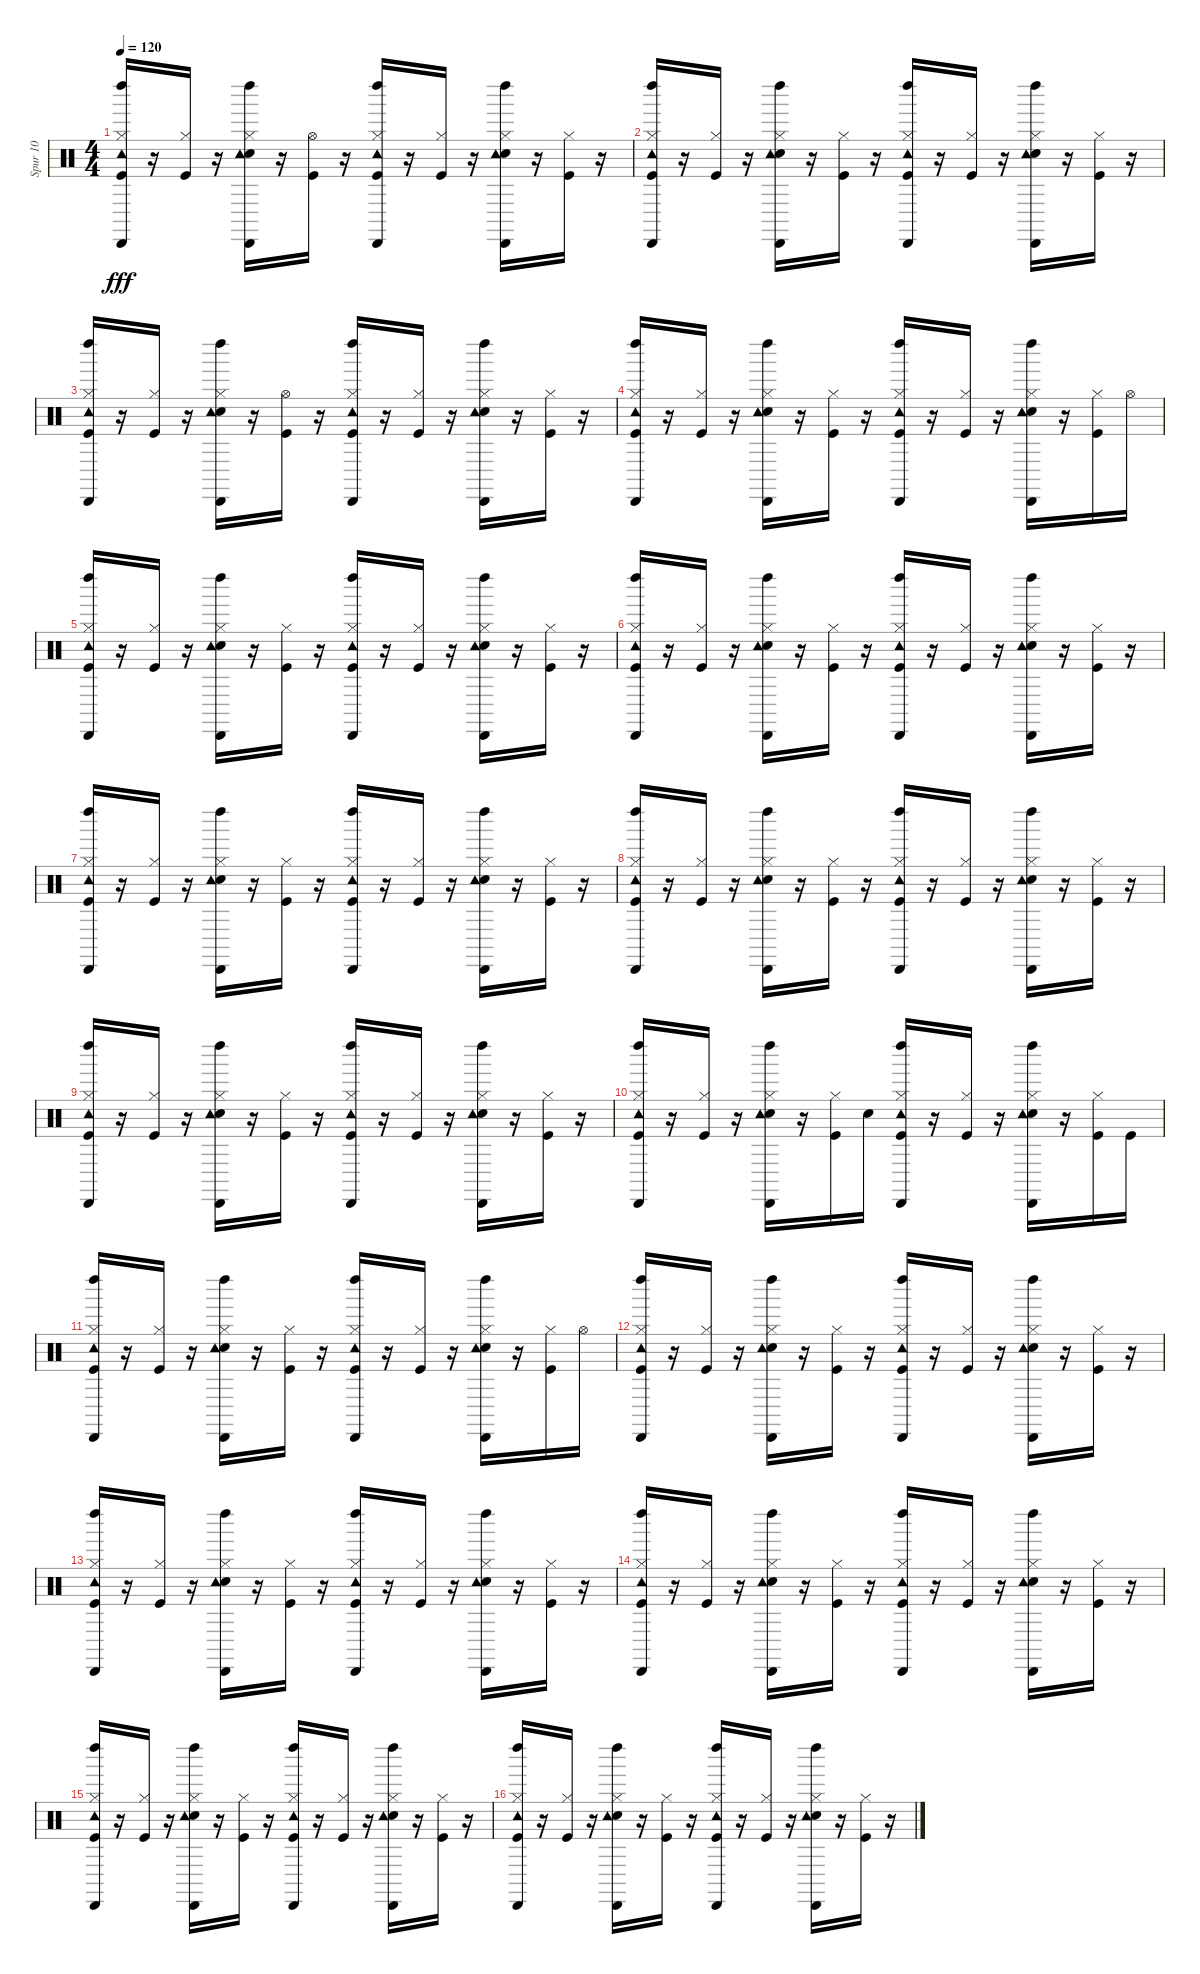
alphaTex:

\track ("Spur 10" "Spur 10") {instrument percussion}
\staff {score}
\articulation defaults
\ts (4 4)
\tempo 120
\clef neutral
\ks c
("Kick (hit)" "Hi-Hat (closed)" "Tambourine (hit)" "Left Maraca (hit)" "Cabasa (hit)").16{dy fff} r.16 ("Kick (hit)" "Hi-Hat (closed)").16 r.16 ("Snare (hit) 2" "Hi-Hat (closed)" "Tambourine (hit)" "Left Maraca (hit)" "Cabasa (hit)").16 r.16 ("Kick (hit)" "Hi-Hat (open)").16 r.16 ("Kick (hit)" "Hi-Hat (closed)" "Tambourine (hit)" "Left Maraca (hit)" "Cabasa (hit)").16 r.16 ("Kick (hit)" "Hi-Hat (closed)").16 r.16 ("Snare (hit) 2" "Hi-Hat (closed)" "Tambourine (hit)" "Left Maraca (hit)" "Cabasa (hit)").16 r.16 ("Kick (hit)" "Hi-Hat (closed)").16 r.16 |
("Kick (hit)" "Hi-Hat (closed)" "Tambourine (hit)" "Left Maraca (hit)" "Cabasa (hit)").16 r.16 ("Kick (hit)" "Hi-Hat (closed)").16 r.16 ("Snare (hit) 2" "Hi-Hat (closed)" "Tambourine (hit)" "Left Maraca (hit)" "Cabasa (hit)").16 r.16 ("Kick (hit)" "Hi-Hat (closed)").16 r.16 ("Kick (hit)" "Hi-Hat (closed)" "Tambourine (hit)" "Left Maraca (hit)" "Cabasa (hit)").16 r.16 ("Kick (hit)" "Hi-Hat (closed)").16 r.16 ("Snare (hit) 2" "Hi-Hat (closed)" "Tambourine (hit)" "Left Maraca (hit)" "Cabasa (hit)").16 r.16 ("Kick (hit)" "Hi-Hat (closed)").16 r.16 |
("Kick (hit)" "Hi-Hat (closed)" "Tambourine (hit)" "Left Maraca (hit)" "Cabasa (hit)").16 r.16 ("Kick (hit)" "Hi-Hat (closed)").16 r.16 ("Snare (hit) 2" "Hi-Hat (closed)" "Tambourine (hit)" "Left Maraca (hit)" "Cabasa (hit)").16 r.16 ("Kick (hit)" "Hi-Hat (open)").16 r.16 ("Kick (hit)" "Hi-Hat (closed)" "Tambourine (hit)" "Left Maraca (hit)" "Cabasa (hit)").16 r.16 ("Kick (hit)" "Hi-Hat (closed)").16 r.16 ("Snare (hit) 2" "Hi-Hat (closed)" "Tambourine (hit)" "Left Maraca (hit)" "Cabasa (hit)").16 r.16 ("Kick (hit)" "Hi-Hat (closed)").16 r.16 |
("Kick (hit)" "Hi-Hat (closed)" "Tambourine (hit)" "Left Maraca (hit)" "Cabasa (hit)").16 r.16 ("Kick (hit)" "Hi-Hat (closed)").16 r.16 ("Snare (hit) 2" "Hi-Hat (closed)" "Tambourine (hit)" "Left Maraca (hit)" "Cabasa (hit)").16 r.16 ("Kick (hit)" "Hi-Hat (closed)").16 r.16 ("Kick (hit)" "Hi-Hat (closed)" "Tambourine (hit)" "Left Maraca (hit)" "Cabasa (hit)").16 r.16 ("Kick (hit)" "Hi-Hat (closed)").16 r.16 ("Snare (hit) 2" "Hi-Hat (closed)" "Tambourine (hit)" "Left Maraca (hit)" "Cabasa (hit)").16 r.16 ("Kick (hit)" "Hi-Hat (closed)").16 "Hi-Hat (open)".16 |
("Kick (hit)" "Hi-Hat (closed)" "Tambourine (hit)" "Left Maraca (hit)" "Cabasa (hit)").16 r.16 ("Kick (hit)" "Hi-Hat (closed)").16 r.16 ("Snare (hit) 2" "Hi-Hat (closed)" "Tambourine (hit)" "Left Maraca (hit)" "Cabasa (hit)").16 r.16 ("Kick (hit)" "Hi-Hat (closed)").16 r.16 ("Kick (hit)" "Hi-Hat (closed)" "Tambourine (hit)" "Left Maraca (hit)" "Cabasa (hit)").16 r.16 ("Kick (hit)" "Hi-Hat (closed)").16 r.16 ("Snare (hit) 2" "Hi-Hat (closed)" "Tambourine (hit)" "Left Maraca (hit)" "Cabasa (hit)").16 r.16 ("Kick (hit)" "Hi-Hat (closed)").16 r.16 |
("Kick (hit)" "Hi-Hat (closed)" "Tambourine (hit)" "Left Maraca (hit)" "Cabasa (hit)").16 r.16 ("Kick (hit)" "Hi-Hat (closed)").16 r.16 ("Snare (hit) 2" "Hi-Hat (closed)" "Tambourine (hit)" "Left Maraca (hit)" "Cabasa (hit)").16 r.16 ("Kick (hit)" "Hi-Hat (closed)").16 r.16 ("Kick (hit)" "Hi-Hat (closed)" "Tambourine (hit)" "Left Maraca (hit)" "Cabasa (hit)").16 r.16 ("Kick (hit)" "Hi-Hat (closed)").16 r.16 ("Snare (hit) 2" "Hi-Hat (closed)" "Tambourine (hit)" "Left Maraca (hit)" "Cabasa (hit)").16 r.16 ("Kick (hit)" "Hi-Hat (closed)").16 r.16 |
("Kick (hit)" "Hi-Hat (closed)" "Tambourine (hit)" "Left Maraca (hit)" "Cabasa (hit)").16 r.16 ("Kick (hit)" "Hi-Hat (closed)").16 r.16 ("Snare (hit) 2" "Hi-Hat (closed)" "Tambourine (hit)" "Left Maraca (hit)" "Cabasa (hit)").16 r.16 ("Kick (hit)" "Hi-Hat (closed)").16 r.16 ("Kick (hit)" "Hi-Hat (closed)" "Tambourine (hit)" "Left Maraca (hit)" "Cabasa (hit)").16 r.16 ("Kick (hit)" "Hi-Hat (closed)").16 r.16 ("Snare (hit) 2" "Hi-Hat (closed)" "Tambourine (hit)" "Left Maraca (hit)" "Cabasa (hit)").16 r.16 ("Kick (hit)" "Hi-Hat (closed)").16 r.16 |
("Kick (hit)" "Hi-Hat (closed)" "Tambourine (hit)" "Left Maraca (hit)" "Cabasa (hit)").16 r.16 ("Kick (hit)" "Hi-Hat (closed)").16 r.16 ("Snare (hit) 2" "Hi-Hat (closed)" "Tambourine (hit)" "Left Maraca (hit)" "Cabasa (hit)").16 r.16 ("Kick (hit)" "Hi-Hat (closed)").16 r.16 ("Kick (hit)" "Hi-Hat (closed)" "Tambourine (hit)" "Left Maraca (hit)" "Cabasa (hit)").16 r.16 ("Kick (hit)" "Hi-Hat (closed)").16 r.16 ("Snare (hit) 2" "Hi-Hat (closed)" "Tambourine (hit)" "Left Maraca (hit)" "Cabasa (hit)").16 r.16 ("Kick (hit)" "Hi-Hat (closed)").16 r.16 |
("Kick (hit)" "Hi-Hat (closed)" "Tambourine (hit)" "Left Maraca (hit)" "Cabasa (hit)").16 r.16 ("Kick (hit)" "Hi-Hat (closed)").16 r.16 ("Snare (hit) 2" "Hi-Hat (closed)" "Tambourine (hit)" "Left Maraca (hit)" "Cabasa (hit)").16 r.16 ("Kick (hit)" "Hi-Hat (closed)").16 r.16 ("Kick (hit)" "Hi-Hat (closed)" "Tambourine (hit)" "Left Maraca (hit)" "Cabasa (hit)").16 r.16 ("Kick (hit)" "Hi-Hat (closed)").16 r.16 ("Snare (hit) 2" "Hi-Hat (closed)" "Tambourine (hit)" "Left Maraca (hit)" "Cabasa (hit)").16 r.16 ("Kick (hit)" "Hi-Hat (closed)").16 r.16 |
("Kick (hit)" "Hi-Hat (closed)" "Tambourine (hit)" "Left Maraca (hit)" "Cabasa (hit)").16 r.16 ("Kick (hit)" "Hi-Hat (closed)").16 r.16 ("Snare (hit) 2" "Hi-Hat (closed)" "Tambourine (hit)" "Left Maraca (hit)" "Cabasa (hit)").16 r.16 ("Kick (hit)" "Hi-Hat (closed)").16 "Snare (hit) 2".16 ("Kick (hit)" "Hi-Hat (closed)" "Tambourine (hit)" "Left Maraca (hit)" "Cabasa (hit)").16 r.16 ("Kick (hit)" "Hi-Hat (closed)").16 r.16 ("Snare (hit) 2" "Hi-Hat (closed)" "Tambourine (hit)" "Left Maraca (hit)" "Cabasa (hit)").16 r.16 ("Kick (hit)" "Hi-Hat (closed)").16 "Kick (hit)".16 |
("Kick (hit)" "Hi-Hat (closed)" "Tambourine (hit)" "Left Maraca (hit)" "Cabasa (hit)").16 r.16 ("Kick (hit)" "Hi-Hat (closed)").16 r.16 ("Snare (hit) 2" "Hi-Hat (closed)" "Tambourine (hit)" "Left Maraca (hit)" "Cabasa (hit)").16 r.16 ("Kick (hit)" "Hi-Hat (closed)").16 r.16 ("Kick (hit)" "Hi-Hat (closed)" "Tambourine (hit)" "Left Maraca (hit)" "Cabasa (hit)").16 r.16 ("Kick (hit)" "Hi-Hat (closed)").16 r.16 ("Snare (hit) 2" "Hi-Hat (closed)" "Tambourine (hit)" "Left Maraca (hit)" "Cabasa (hit)").16 r.16 ("Kick (hit)" "Hi-Hat (closed)").16 "Hi-Hat (open)".16 |
("Kick (hit)" "Hi-Hat (closed)" "Tambourine (hit)" "Left Maraca (hit)" "Cabasa (hit)").16 r.16 ("Kick (hit)" "Hi-Hat (closed)").16 r.16 ("Snare (hit) 2" "Hi-Hat (closed)" "Tambourine (hit)" "Left Maraca (hit)" "Cabasa (hit)").16 r.16 ("Kick (hit)" "Hi-Hat (closed)").16 r.16 ("Kick (hit)" "Hi-Hat (closed)" "Tambourine (hit)" "Left Maraca (hit)" "Cabasa (hit)").16 r.16 ("Kick (hit)" "Hi-Hat (closed)").16 r.16 ("Snare (hit) 2" "Hi-Hat (closed)" "Tambourine (hit)" "Left Maraca (hit)" "Cabasa (hit)").16 r.16 ("Kick (hit)" "Hi-Hat (closed)").16 r.16 |
("Kick (hit)" "Hi-Hat (closed)" "Tambourine (hit)" "Left Maraca (hit)" "Cabasa (hit)").16 r.16 ("Kick (hit)" "Hi-Hat (closed)").16 r.16 ("Snare (hit) 2" "Hi-Hat (closed)" "Tambourine (hit)" "Left Maraca (hit)" "Cabasa (hit)").16 r.16 ("Kick (hit)" "Hi-Hat (closed)").16 r.16 ("Kick (hit)" "Hi-Hat (closed)" "Tambourine (hit)" "Left Maraca (hit)" "Cabasa (hit)").16 r.16 ("Kick (hit)" "Hi-Hat (closed)").16 r.16 ("Snare (hit) 2" "Hi-Hat (closed)" "Tambourine (hit)" "Left Maraca (hit)" "Cabasa (hit)").16 r.16 ("Kick (hit)" "Hi-Hat (closed)").16 r.16 |
("Kick (hit)" "Hi-Hat (closed)" "Tambourine (hit)" "Left Maraca (hit)" "Cabasa (hit)").16 r.16 ("Kick (hit)" "Hi-Hat (closed)").16 r.16 ("Snare (hit) 2" "Hi-Hat (closed)" "Tambourine (hit)" "Left Maraca (hit)" "Cabasa (hit)").16 r.16 ("Kick (hit)" "Hi-Hat (closed)").16 r.16 ("Kick (hit)" "Hi-Hat (closed)" "Tambourine (hit)" "Left Maraca (hit)" "Cabasa (hit)").16 r.16 ("Kick (hit)" "Hi-Hat (closed)").16 r.16 ("Snare (hit) 2" "Hi-Hat (closed)" "Tambourine (hit)" "Left Maraca (hit)" "Cabasa (hit)").16 r.16 ("Kick (hit)" "Hi-Hat (closed)").16 r.16 |
("Kick (hit)" "Hi-Hat (closed)" "Tambourine (hit)" "Left Maraca (hit)" "Cabasa (hit)").16 r.16 ("Kick (hit)" "Hi-Hat (closed)").16 r.16 ("Snare (hit) 2" "Hi-Hat (closed)" "Tambourine (hit)" "Left Maraca (hit)" "Cabasa (hit)").16 r.16 ("Kick (hit)" "Hi-Hat (closed)").16 r.16 ("Kick (hit)" "Hi-Hat (closed)" "Tambourine (hit)" "Left Maraca (hit)" "Cabasa (hit)").16 r.16 ("Kick (hit)" "Hi-Hat (closed)").16 r.16 ("Snare (hit) 2" "Hi-Hat (closed)" "Tambourine (hit)" "Left Maraca (hit)" "Cabasa (hit)").16 r.16 ("Kick (hit)" "Hi-Hat (closed)").16 r.16 |
("Kick (hit)" "Hi-Hat (closed)" "Tambourine (hit)" "Left Maraca (hit)" "Cabasa (hit)").16 r.16 ("Kick (hit)" "Hi-Hat (closed)").16 r.16 ("Snare (hit) 2" "Hi-Hat (closed)" "Tambourine (hit)" "Left Maraca (hit)" "Cabasa (hit)").16 r.16 ("Kick (hit)" "Hi-Hat (closed)").16 r.16 ("Kick (hit)" "Hi-Hat (closed)" "Tambourine (hit)" "Left Maraca (hit)" "Cabasa (hit)").16 r.16 ("Kick (hit)" "Hi-Hat (closed)").16 r.16 ("Snare (hit) 2" "Hi-Hat (closed)" "Tambourine (hit)" "Left Maraca (hit)" "Cabasa (hit)").16 r.16 ("Kick (hit)" "Hi-Hat (closed)").16 r.16
